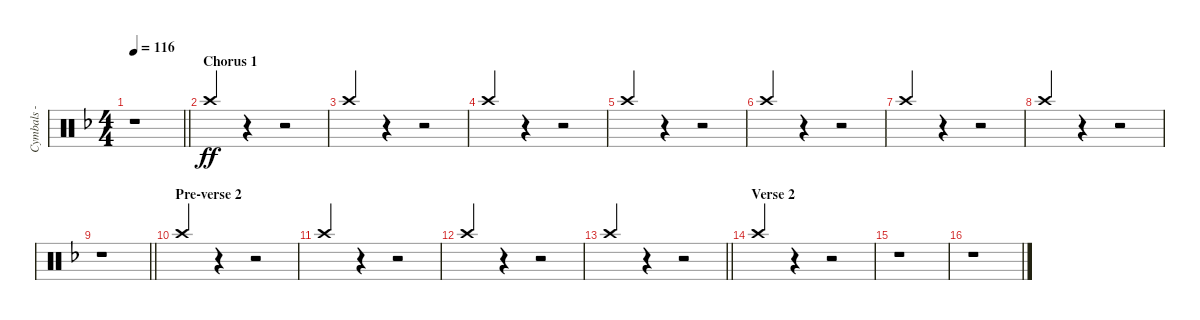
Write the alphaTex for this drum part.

\track ("Cymbals - crash" "Cymbals - ") {instrument percussion}
\staff {score}
\articulation defaults
\ts (4 4)
\tempo 116
\clef neutral
\barLineRight lightlight
\ks f
r.1{dy ff} |
\section ("" "Chorus 1")
"Crash high (hit)".4{beam Up} r.4 r.2 |
"Crash high (hit)".4{beam Up} r.4 r.2 |
"Crash high (hit)".4{beam Up} r.4 r.2 |
"Crash high (hit)".4{beam Up} r.4 r.2 |
"Crash high (hit)".4{beam Up} r.4 r.2 |
"Crash high (hit)".4{beam Up} r.4 r.2 |
"Crash high (hit)".4{beam Up} r.4 r.2 |
\barLineRight lightlight
r.1 |
\section ("" "Pre-verse 2")
"Crash high (hit)".4{beam Up} r.4 r.2 |
"Crash high (hit)".4{beam Up} r.4 r.2 |
"Crash high (hit)".4{beam Up} r.4 r.2 |
\barLineRight lightlight "Crash high (hit)".4{beam Up}
r.4 r.2 |
\section ("" "Verse 2")
"Crash high (hit)".4{beam Up} r.4 r.2 |
r.1 |
r.1
